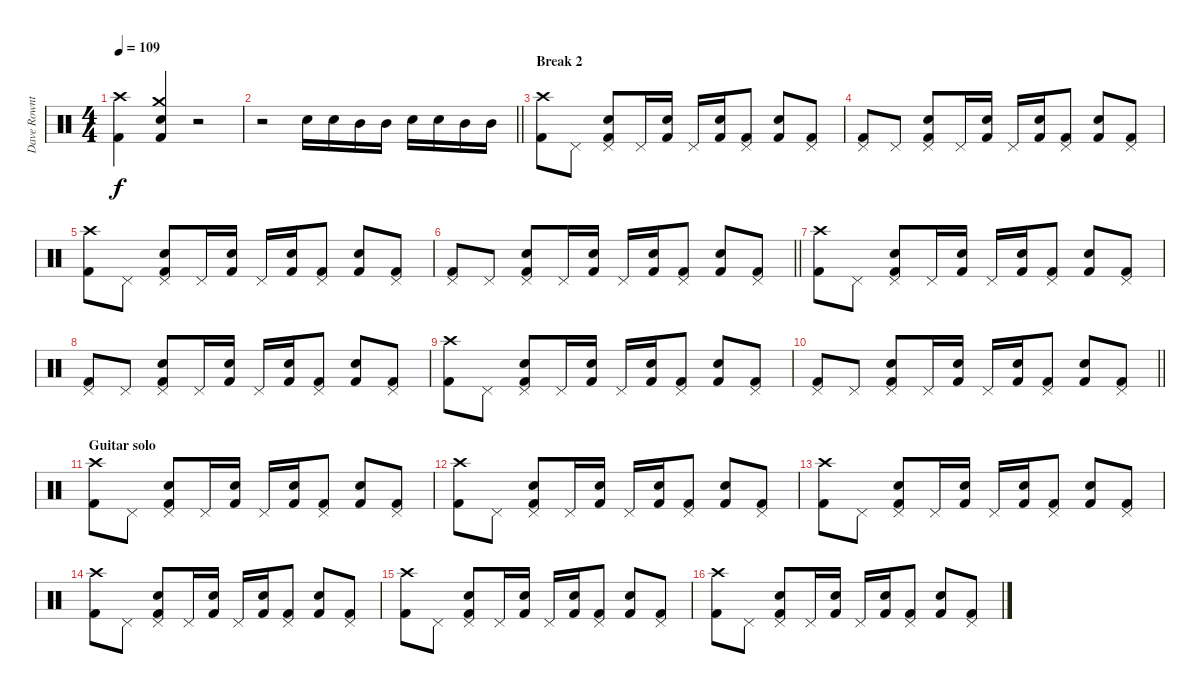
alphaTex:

\track ("Dave Rowntree - Drums" "Dave Rownt") {instrument percussion}
\staff {score}
\articulation defaults
\ts (4 4)
\tempo 109
\clef neutral
\ks c
("Kick (hit) 2" "Crash high (hit)").4{dy f} ("Kick (hit) 2" "Crash medium (hit)" "Electric Snare (hit)").4 r.2 |
\barLineRight lightlight
r.2 "Electric Snare (hit)".16 "Electric Snare (hit)".16 "Mid Tom (hit)".16 "Mid Tom (hit)".16 "Electric Snare (hit)".16 "Electric Snare (hit)".16 "Mid Tom (hit)".16 "Mid Tom (hit)".16 |
\section ("" "Break 2")
("Kick (hit) 2" "Crash high (hit)").8 "Pedal Hi-Hat (hit)".8 ("Kick (hit) 2" "Pedal Hi-Hat (hit)" "Electric Snare (hit)").8 "Pedal Hi-Hat (hit)".16 ("Kick (hit) 2" "Electric Snare (hit)").16 "Pedal Hi-Hat (hit)".16 ("Kick (hit) 2" "Electric Snare (hit)").16 ("Kick (hit) 2" "Pedal Hi-Hat (hit)").8 ("Kick (hit) 2" "Electric Snare (hit)").8 ("Kick (hit) 2" "Pedal Hi-Hat (hit)").8 |
("Kick (hit) 2" "Pedal Hi-Hat (hit)").8 "Pedal Hi-Hat (hit)".8 ("Kick (hit) 2" "Pedal Hi-Hat (hit)" "Electric Snare (hit)").8 "Pedal Hi-Hat (hit)".16 ("Kick (hit) 2" "Electric Snare (hit)").16 "Pedal Hi-Hat (hit)".16 ("Kick (hit) 2" "Electric Snare (hit)").16 ("Kick (hit) 2" "Pedal Hi-Hat (hit)").8 ("Kick (hit) 2" "Electric Snare (hit)").8 ("Kick (hit) 2" "Pedal Hi-Hat (hit)").8 |
("Kick (hit) 2" "Crash high (hit)").8 "Pedal Hi-Hat (hit)".8 ("Kick (hit) 2" "Pedal Hi-Hat (hit)" "Electric Snare (hit)").8 "Pedal Hi-Hat (hit)".16 ("Kick (hit) 2" "Electric Snare (hit)").16 "Pedal Hi-Hat (hit)".16 ("Kick (hit) 2" "Electric Snare (hit)").16 ("Kick (hit) 2" "Pedal Hi-Hat (hit)").8 ("Kick (hit) 2" "Electric Snare (hit)").8 ("Kick (hit) 2" "Pedal Hi-Hat (hit)").8 |
\barLineRight lightlight
("Kick (hit) 2" "Pedal Hi-Hat (hit)").8 "Pedal Hi-Hat (hit)".8 ("Kick (hit) 2" "Pedal Hi-Hat (hit)" "Electric Snare (hit)").8 "Pedal Hi-Hat (hit)".16 ("Kick (hit) 2" "Electric Snare (hit)").16 "Pedal Hi-Hat (hit)".16 ("Kick (hit) 2" "Electric Snare (hit)").16 ("Kick (hit) 2" "Pedal Hi-Hat (hit)").8 ("Kick (hit) 2" "Electric Snare (hit)").8 ("Kick (hit) 2" "Pedal Hi-Hat (hit)").8 |
("Kick (hit) 2" "Crash high (hit)").8 "Pedal Hi-Hat (hit)".8 ("Kick (hit) 2" "Pedal Hi-Hat (hit)" "Electric Snare (hit)").8 "Pedal Hi-Hat (hit)".16 ("Kick (hit) 2" "Electric Snare (hit)").16 "Pedal Hi-Hat (hit)".16 ("Kick (hit) 2" "Electric Snare (hit)").16 ("Kick (hit) 2" "Pedal Hi-Hat (hit)").8 ("Kick (hit) 2" "Electric Snare (hit)").8 ("Kick (hit) 2" "Pedal Hi-Hat (hit)").8 |
("Kick (hit) 2" "Pedal Hi-Hat (hit)").8 "Pedal Hi-Hat (hit)".8 ("Kick (hit) 2" "Pedal Hi-Hat (hit)" "Electric Snare (hit)").8 "Pedal Hi-Hat (hit)".16 ("Kick (hit) 2" "Electric Snare (hit)").16 "Pedal Hi-Hat (hit)".16 ("Kick (hit) 2" "Electric Snare (hit)").16 ("Kick (hit) 2" "Pedal Hi-Hat (hit)").8 ("Kick (hit) 2" "Electric Snare (hit)").8 ("Kick (hit) 2" "Pedal Hi-Hat (hit)").8 |
("Kick (hit) 2" "Crash high (hit)").8 "Pedal Hi-Hat (hit)".8 ("Kick (hit) 2" "Pedal Hi-Hat (hit)" "Electric Snare (hit)").8 "Pedal Hi-Hat (hit)".16 ("Kick (hit) 2" "Electric Snare (hit)").16 "Pedal Hi-Hat (hit)".16 ("Kick (hit) 2" "Electric Snare (hit)").16 ("Kick (hit) 2" "Pedal Hi-Hat (hit)").8 ("Kick (hit) 2" "Electric Snare (hit)").8 ("Kick (hit) 2" "Pedal Hi-Hat (hit)").8 |
\barLineRight lightlight
("Kick (hit) 2" "Pedal Hi-Hat (hit)").8 "Pedal Hi-Hat (hit)".8 ("Kick (hit) 2" "Pedal Hi-Hat (hit)" "Electric Snare (hit)").8 "Pedal Hi-Hat (hit)".16 ("Kick (hit) 2" "Electric Snare (hit)").16 "Pedal Hi-Hat (hit)".16 ("Kick (hit) 2" "Electric Snare (hit)").16 ("Kick (hit) 2" "Pedal Hi-Hat (hit)").8 ("Kick (hit) 2" "Electric Snare (hit)").8 ("Kick (hit) 2" "Pedal Hi-Hat (hit)").8 |
\section ("" "Guitar solo")
("Kick (hit) 2" "Crash high (hit)").8 "Pedal Hi-Hat (hit)".8 ("Kick (hit) 2" "Pedal Hi-Hat (hit)" "Electric Snare (hit)").8 "Pedal Hi-Hat (hit)".16 ("Kick (hit) 2" "Electric Snare (hit)").16 "Pedal Hi-Hat (hit)".16 ("Kick (hit) 2" "Electric Snare (hit)").16 ("Kick (hit) 2" "Pedal Hi-Hat (hit)").8 ("Kick (hit) 2" "Electric Snare (hit)").8 ("Kick (hit) 2" "Pedal Hi-Hat (hit)").8 |
("Kick (hit) 2" "Crash high (hit)").8 "Pedal Hi-Hat (hit)".8 ("Kick (hit) 2" "Pedal Hi-Hat (hit)" "Electric Snare (hit)").8 "Pedal Hi-Hat (hit)".16 ("Kick (hit) 2" "Electric Snare (hit)").16 "Pedal Hi-Hat (hit)".16 ("Kick (hit) 2" "Electric Snare (hit)").16 ("Kick (hit) 2" "Pedal Hi-Hat (hit)").8 ("Kick (hit) 2" "Electric Snare (hit)").8 ("Kick (hit) 2" "Pedal Hi-Hat (hit)").8 |
("Kick (hit) 2" "Crash high (hit)").8 "Pedal Hi-Hat (hit)".8 ("Kick (hit) 2" "Pedal Hi-Hat (hit)" "Electric Snare (hit)").8 "Pedal Hi-Hat (hit)".16 ("Kick (hit) 2" "Electric Snare (hit)").16 "Pedal Hi-Hat (hit)".16 ("Kick (hit) 2" "Electric Snare (hit)").16 ("Kick (hit) 2" "Pedal Hi-Hat (hit)").8 ("Kick (hit) 2" "Electric Snare (hit)").8 ("Kick (hit) 2" "Pedal Hi-Hat (hit)").8 |
("Kick (hit) 2" "Crash high (hit)").8 "Pedal Hi-Hat (hit)".8 ("Kick (hit) 2" "Pedal Hi-Hat (hit)" "Electric Snare (hit)").8 "Pedal Hi-Hat (hit)".16 ("Kick (hit) 2" "Electric Snare (hit)").16 "Pedal Hi-Hat (hit)".16 ("Kick (hit) 2" "Electric Snare (hit)").16 ("Kick (hit) 2" "Pedal Hi-Hat (hit)").8 ("Kick (hit) 2" "Electric Snare (hit)").8 ("Kick (hit) 2" "Pedal Hi-Hat (hit)").8 |
("Kick (hit) 2" "Crash high (hit)").8 "Pedal Hi-Hat (hit)".8 ("Kick (hit) 2" "Pedal Hi-Hat (hit)" "Electric Snare (hit)").8 "Pedal Hi-Hat (hit)".16 ("Kick (hit) 2" "Electric Snare (hit)").16 "Pedal Hi-Hat (hit)".16 ("Kick (hit) 2" "Electric Snare (hit)").16 ("Kick (hit) 2" "Pedal Hi-Hat (hit)").8 ("Kick (hit) 2" "Electric Snare (hit)").8 ("Kick (hit) 2" "Pedal Hi-Hat (hit)").8 |
("Kick (hit) 2" "Crash high (hit)").8 "Pedal Hi-Hat (hit)".8 ("Kick (hit) 2" "Pedal Hi-Hat (hit)" "Electric Snare (hit)").8 "Pedal Hi-Hat (hit)".16 ("Kick (hit) 2" "Electric Snare (hit)").16 "Pedal Hi-Hat (hit)".16 ("Kick (hit) 2" "Electric Snare (hit)").16 ("Kick (hit) 2" "Pedal Hi-Hat (hit)").8 ("Kick (hit) 2" "Electric Snare (hit)").8 ("Kick (hit) 2" "Pedal Hi-Hat (hit)").8
